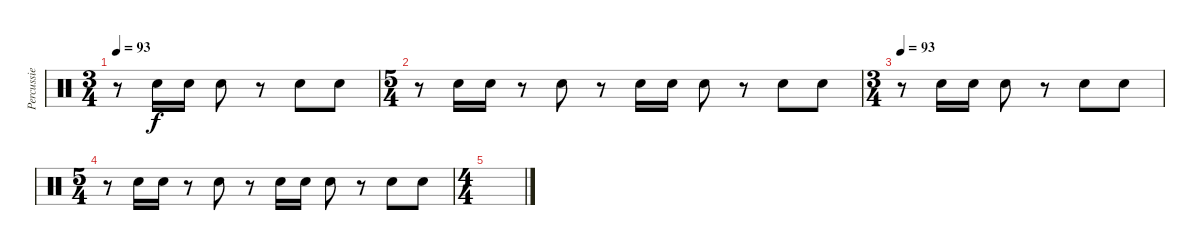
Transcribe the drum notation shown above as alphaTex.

\track ("Percussie" "Percussie") {instrument percussion}
\staff {score}
\articulation defaults
\ts (3 4)
\tempo 93
\clef neutral
\ks c
r.8{dy f} "Hand Clap (hit)".16 "Hand Clap (hit)".16 "Hand Clap (hit)".8 r.8 "Hand Clap (hit)".8 "Hand Clap (hit)".8 |
\ts (5 4)
r.8 "Hand Clap (hit)".16 "Hand Clap (hit)".16 r.8 "Hand Clap (hit)".8 r.8 "Hand Clap (hit)".16 "Hand Clap (hit)".16 "Hand Clap (hit)".8 r.8 "Hand Clap (hit)".8 "Hand Clap (hit)".8 |
\ts (3 4)
\tempo 93
r.8 "Hand Clap (hit)".16 "Hand Clap (hit)".16 "Hand Clap (hit)".8 r.8 "Hand Clap (hit)".8 "Hand Clap (hit)".8 |
\ts (5 4)
r.8 "Hand Clap (hit)".16 "Hand Clap (hit)".16 r.8 "Hand Clap (hit)".8 r.8 "Hand Clap (hit)".16 "Hand Clap (hit)".16 "Hand Clap (hit)".8 r.8 "Hand Clap (hit)".8 "Hand Clap (hit)".8 |
\ts (4 4)
